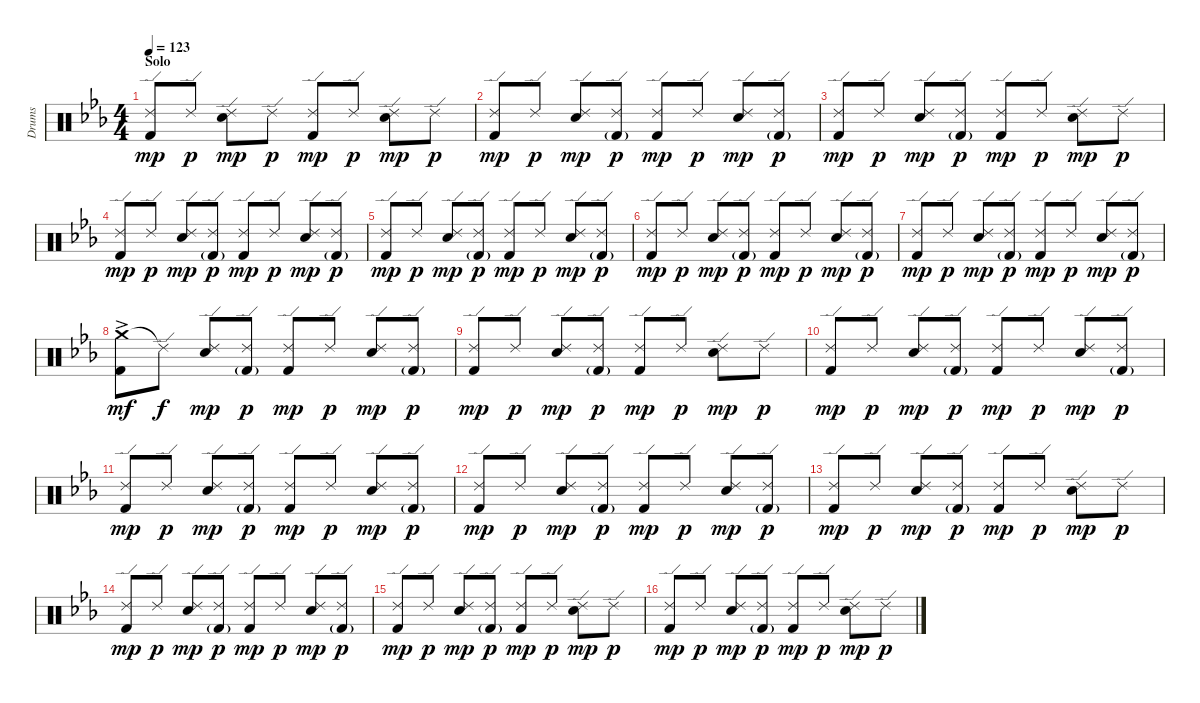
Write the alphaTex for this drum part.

\track ("Drums" "Drums") {instrument percussion}
\staff {score}
\articulation defaults
\ts (4 4)
\section ("" "Solo")
\tempo 123
\clef neutral
\ks eb
("Ride (edge) 2" "Kick (hit) 2").8{dy mp} "Ride (edge) 2".8{dy p} ("Ride (edge) 2" "Electric Snare (hit)").8{dy mp} "Ride (edge) 2".8{dy p} ("Ride (edge) 2" "Kick (hit) 2").8{dy mp} "Ride (edge) 2".8{dy p} ("Ride (edge) 2" "Electric Snare (hit)").8{dy mp} "Ride (edge) 2".8{dy p} |
("Ride (edge) 2" "Kick (hit) 2").8{dy mp} "Ride (edge) 2".8{dy p} ("Ride (edge) 2" "Electric Snare (hit)").8{dy mp} ("Ride (edge) 2" "Kick (hit) 2"{g}).8{dy p} ("Ride (edge) 2" "Kick (hit) 2").8{dy mp} "Ride (edge) 2".8{dy p} ("Ride (edge) 2" "Electric Snare (hit)").8{dy mp} ("Ride (edge) 2" "Kick (hit) 2"{g}).8{dy p} |
("Ride (edge) 2" "Kick (hit) 2").8{dy mp} "Ride (edge) 2".8{dy p} ("Ride (edge) 2" "Electric Snare (hit)").8{dy mp} ("Ride (edge) 2" "Kick (hit) 2"{g}).8{dy p} ("Ride (edge) 2" "Kick (hit) 2").8{dy mp} "Ride (edge) 2".8{dy p} ("Ride (edge) 2" "Electric Snare (hit)").8{dy mp} "Ride (edge) 2".8{dy p} |
("Ride (edge) 2" "Kick (hit) 2").8{dy mp} "Ride (edge) 2".8{dy p} ("Ride (edge) 2" "Electric Snare (hit)").8{dy mp} ("Ride (edge) 2" "Kick (hit) 2"{g}).8{dy p} ("Ride (edge) 2" "Kick (hit) 2").8{dy mp} "Ride (edge) 2".8{dy p} ("Ride (edge) 2" "Electric Snare (hit)").8{dy mp} ("Ride (edge) 2" "Kick (hit) 2"{g}).8{dy p} |
("Ride (edge) 2" "Kick (hit) 2").8{dy mp} "Ride (edge) 2".8{dy p} ("Ride (edge) 2" "Electric Snare (hit)").8{dy mp} ("Ride (edge) 2" "Kick (hit) 2"{g}).8{dy p} ("Ride (edge) 2" "Kick (hit) 2").8{dy mp} "Ride (edge) 2".8{dy p} ("Ride (edge) 2" "Electric Snare (hit)").8{dy mp} ("Ride (edge) 2" "Kick (hit) 2"{g}).8{dy p} |
("Ride (edge) 2" "Kick (hit) 2").8{dy mp} "Ride (edge) 2".8{dy p} ("Ride (edge) 2" "Electric Snare (hit)").8{dy mp} ("Ride (edge) 2" "Kick (hit) 2"{g}).8{dy p} ("Ride (edge) 2" "Kick (hit) 2").8{dy mp} "Ride (edge) 2".8{dy p} ("Ride (edge) 2" "Electric Snare (hit)").8{dy mp} ("Ride (edge) 2" "Kick (hit) 2"{g}).8{dy p} |
("Ride (edge) 2" "Kick (hit) 2").8{dy mp} "Ride (edge) 2".8{dy p} ("Ride (edge) 2" "Electric Snare (hit)").8{dy mp} ("Ride (edge) 2" "Kick (hit) 2"{g}).8{dy p} ("Ride (edge) 2" "Kick (hit) 2").8{dy mp} "Ride (edge) 2".8{dy p} ("Ride (edge) 2" "Electric Snare (hit)").8{dy mp} ("Ride (edge) 2" "Kick (hit) 2"{g}).8{dy p} |
("Crash medium (hit)"{ac} "Kick (hit) 2").8{dy mf} "Ride (edge) 2"{t}.8{dy f} ("Ride (edge) 2" "Electric Snare (hit)").8{dy mp} ("Ride (edge) 2" "Kick (hit) 2"{g}).8{dy p} ("Ride (edge) 2" "Kick (hit) 2").8{dy mp} "Ride (edge) 2".8{dy p} ("Ride (edge) 2" "Electric Snare (hit)").8{dy mp} ("Ride (edge) 2" "Kick (hit) 2"{g}).8{dy p} |
("Ride (edge) 2" "Kick (hit) 2").8{dy mp} "Ride (edge) 2".8{dy p} ("Ride (edge) 2" "Electric Snare (hit)").8{dy mp} ("Ride (edge) 2" "Kick (hit) 2"{g}).8{dy p} ("Ride (edge) 2" "Kick (hit) 2").8{dy mp} "Ride (edge) 2".8{dy p} ("Ride (edge) 2" "Electric Snare (hit)").8{dy mp} "Ride (edge) 2".8{dy p} |
("Ride (edge) 2" "Kick (hit) 2").8{dy mp} "Ride (edge) 2".8{dy p} ("Ride (edge) 2" "Electric Snare (hit)").8{dy mp} ("Ride (edge) 2" "Kick (hit) 2"{g}).8{dy p} ("Ride (edge) 2" "Kick (hit) 2").8{dy mp} "Ride (edge) 2".8{dy p} ("Ride (edge) 2" "Electric Snare (hit)").8{dy mp} ("Ride (edge) 2" "Kick (hit) 2"{g}).8{dy p} |
("Ride (edge) 2" "Kick (hit) 2").8{dy mp} "Ride (edge) 2".8{dy p} ("Ride (edge) 2" "Electric Snare (hit)").8{dy mp} ("Ride (edge) 2" "Kick (hit) 2"{g}).8{dy p} ("Ride (edge) 2" "Kick (hit) 2").8{dy mp} "Ride (edge) 2".8{dy p} ("Ride (edge) 2" "Electric Snare (hit)").8{dy mp} ("Ride (edge) 2" "Kick (hit) 2"{g}).8{dy p} |
("Ride (edge) 2" "Kick (hit) 2").8{dy mp} "Ride (edge) 2".8{dy p} ("Ride (edge) 2" "Electric Snare (hit)").8{dy mp} ("Ride (edge) 2" "Kick (hit) 2"{g}).8{dy p} ("Ride (edge) 2" "Kick (hit) 2").8{dy mp} "Ride (edge) 2".8{dy p} ("Ride (edge) 2" "Electric Snare (hit)").8{dy mp} ("Ride (edge) 2" "Kick (hit) 2"{g}).8{dy p} |
("Ride (edge) 2" "Kick (hit) 2").8{dy mp} "Ride (edge) 2".8{dy p} ("Ride (edge) 2" "Electric Snare (hit)").8{dy mp} ("Ride (edge) 2" "Kick (hit) 2"{g}).8{dy p} ("Ride (edge) 2" "Kick (hit) 2").8{dy mp} "Ride (edge) 2".8{dy p} ("Ride (edge) 2" "Electric Snare (hit)").8{dy mp} "Ride (edge) 2".8{dy p} |
("Ride (edge) 2" "Kick (hit) 2").8{dy mp} "Ride (edge) 2".8{dy p} ("Ride (edge) 2" "Electric Snare (hit)").8{dy mp} ("Ride (edge) 2" "Kick (hit) 2"{g}).8{dy p} ("Ride (edge) 2" "Kick (hit) 2").8{dy mp} "Ride (edge) 2".8{dy p} ("Ride (edge) 2" "Electric Snare (hit)").8{dy mp} ("Ride (edge) 2" "Kick (hit) 2"{g}).8{dy p} |
("Ride (edge) 2" "Kick (hit) 2").8{dy mp} "Ride (edge) 2".8{dy p} ("Ride (edge) 2" "Electric Snare (hit)").8{dy mp} ("Ride (edge) 2" "Kick (hit) 2"{g}).8{dy p} ("Ride (edge) 2" "Kick (hit) 2").8{dy mp} "Ride (edge) 2".8{dy p} ("Ride (edge) 2" "Electric Snare (hit)").8{dy mp} "Ride (edge) 2".8{dy p} |
("Ride (edge) 2" "Kick (hit) 2").8{dy mp} "Ride (edge) 2".8{dy p} ("Ride (edge) 2" "Electric Snare (hit)").8{dy mp} ("Ride (edge) 2" "Kick (hit) 2"{g}).8{dy p} ("Ride (edge) 2" "Kick (hit) 2").8{dy mp} "Ride (edge) 2".8{dy p} ("Ride (edge) 2" "Electric Snare (hit)").8{dy mp} "Ride (edge) 2".8{dy p}
